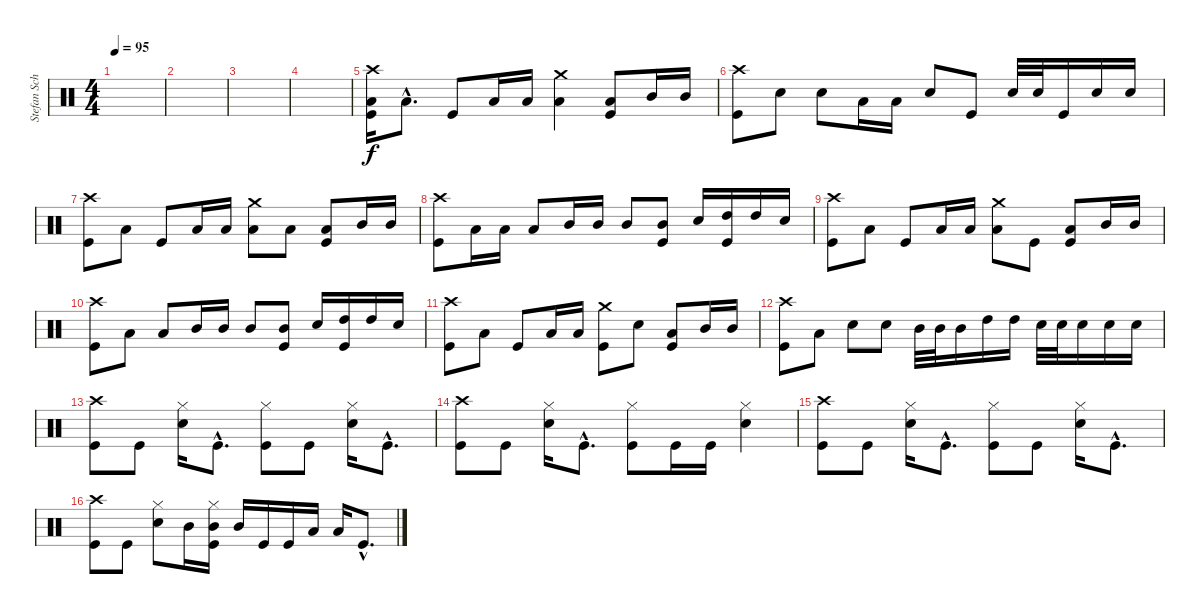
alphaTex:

\track ("Stefan Schwarzmann - -drums" "Stefan Sch") {instrument percussion}
\staff {score}
\articulation defaults
\ts (4 4)
\tempo 95
\clef neutral
\ks c
|
|
|
|
("Crash high (hit)" "Low Tom (hit)" "Kick (hit)").16 "Low Tom (hit)"{hac}.8{d} "Kick (hit)".8 "Low Tom (hit)".16 "Low Tom (hit)".16 ("Crash medium (hit)" "Low Tom (hit)").4 ("Low Tom (hit)" "Kick (hit)").8 "Mid Tom (hit)".16 "Mid Tom (hit)".16 |
("Crash high (hit)" "Kick (hit)").8 "Electric Snare (hit)".8 "Electric Snare (hit)".8 "Low Tom (hit)".16 "Low Tom (hit)".16 "Electric Snare (hit)".8 "Kick (hit)".8 "Electric Snare (hit)".32 "Electric Snare (hit)".32 "Kick (hit)".16 "Electric Snare (hit)".16 "Electric Snare (hit)".16 |
("Crash high (hit)" "Kick (hit)").8 "Low Tom (hit)".8 "Kick (hit)".8 "Low Tom (hit)".16 "Low Tom (hit)".16 ("Crash medium (hit)" "Low Tom (hit)").8 "Low Tom (hit)".8 ("Low Tom (hit)" "Kick (hit)").8 "Mid Tom (hit)".16 "Mid Tom (hit)".16 |
("Crash high (hit)" "Kick (hit)").8 "Low Tom (hit)".16 "Low Tom (hit)".16 "Low Tom (hit)".8 "Mid Tom (hit)".16 "Mid Tom (hit)".16 "Mid Tom (hit)".8 ("Mid Tom (hit)" "Kick (hit)").8 "Electric Snare (hit)".16 ("High Tom (hit)" "Kick (hit)").16 "High Tom (hit)".16 "Electric Snare (hit)".16 |
("Crash high (hit)" "Kick (hit)").8 "Low Tom (hit)".8 "Kick (hit)".8 "Low Tom (hit)".16 "Low Tom (hit)".16 ("Crash medium (hit)" "Low Tom (hit)").8 "Kick (hit)".8 ("Low Tom (hit)" "Kick (hit)").8 "Mid Tom (hit)".16 "Mid Tom (hit)".16 |
("Crash high (hit)" "Kick (hit)").8 "Low Tom (hit)".8 "Low Tom (hit)".8 "Mid Tom (hit)".16 "Mid Tom (hit)".16 "Mid Tom (hit)".8 ("Mid Tom (hit)" "Kick (hit)").8 "Electric Snare (hit)".16 ("High Tom (hit)" "Kick (hit)").16 "High Tom (hit)".16 "Electric Snare (hit)".16 |
("Crash high (hit)" "Kick (hit)").8 "Low Tom (hit)".8 "Kick (hit)".8 "Low Tom (hit)".16 "Low Tom (hit)".16 ("Crash medium (hit)" "Kick (hit)").8 "Electric Snare (hit)".8 ("Low Tom (hit)" "Kick (hit)").8 "Mid Tom (hit)".16 "Mid Tom (hit)".16 |
("Crash high (hit)" "Kick (hit)").8 "Low Tom (hit)".8 "Electric Snare (hit)".8 "Electric Snare (hit)".8 "Mid Tom (hit)".32 "Mid Tom (hit)".32 "Mid Tom (hit)".16 "High Tom (hit)".16 "High Tom (hit)".16 "Electric Snare (hit)".32 "Electric Snare (hit)".32 "Electric Snare (hit)".16 "Electric Snare (hit)".16 "Electric Snare (hit)".16 |
("Crash high (hit)" "Kick (hit)").8 "Kick (hit)".8 ("Hi-Hat (closed)" "Electric Snare (hit)").16 "Kick (hit)"{hac}.8{d} ("Hi-Hat (closed)" "Kick (hit)").8 "Kick (hit)".8 ("Hi-Hat (closed)" "Electric Snare (hit)").16 "Kick (hit)"{hac}.8{d} |
("Crash high (hit)" "Kick (hit)").8 "Kick (hit)".8 ("Hi-Hat (closed)" "Electric Snare (hit)").16 "Kick (hit)"{hac}.8{d} ("Hi-Hat (closed)" "Kick (hit)").8 "Kick (hit)".16 "Kick (hit)".16 ("Hi-Hat (closed)" "Electric Snare (hit)").4 |
("Crash high (hit)" "Kick (hit)").8 "Kick (hit)".8 ("Hi-Hat (closed)" "Electric Snare (hit)").16 "Kick (hit)"{hac}.8{d} ("Hi-Hat (closed)" "Kick (hit)").8 "Kick (hit)".8 ("Hi-Hat (closed)" "Electric Snare (hit)").16 "Kick (hit)"{hac}.8{d} |
("Crash high (hit)" "Kick (hit)").8 "Kick (hit)".8 ("Hi-Hat (closed)" "Electric Snare (hit)").8 "Mid Tom (hit)".16 ("Hi-Hat (closed)" "Mid Tom (hit)" "Kick (hit)").16 "Mid Tom (hit)".16 "Kick (hit)".16 "Kick (hit)".16 "Low Tom (hit)".16 "Low Tom (hit)".16 "Kick (hit)"{hac}.8{d}
